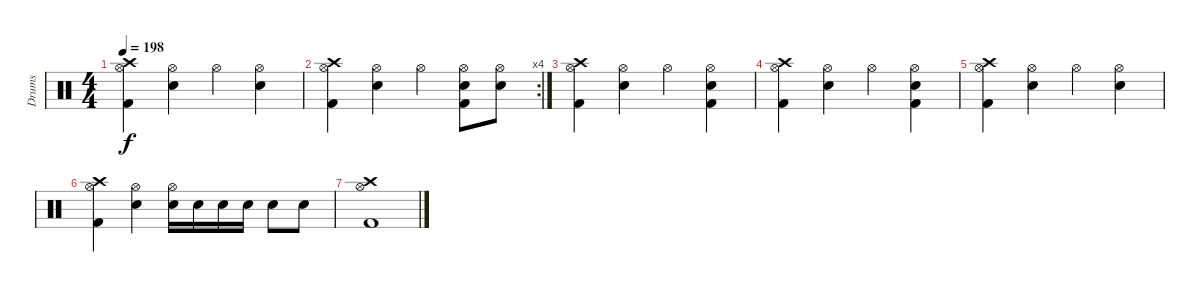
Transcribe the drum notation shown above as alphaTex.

\track ("Drums" "Drums") {instrument percussion}
\staff {score}
\articulation defaults
\ts (4 4)
\tempo 198
\clef neutral
\ks c
("Hi-Hat (open)" "Kick (hit) 2" "Crash high (hit)").4{dy f} ("Hi-Hat (open)" "Snare (hit) 2").4 "Hi-Hat (open)".4 ("Hi-Hat (open)" "Snare (hit) 2").4 |
\rc 4
("Hi-Hat (open)" "Kick (hit) 2" "Crash high (hit)").4 ("Hi-Hat (open)" "Snare (hit) 2").4 "Hi-Hat (open)".4 ("Hi-Hat (open)" "Snare (hit) 2" "Kick (hit) 2").8 ("Snare (hit) 2" "Hi-Hat (open)").8 |
("Hi-Hat (open)" "Kick (hit) 2" "Crash high (hit)").4 ("Hi-Hat (open)" "Snare (hit) 2").4 "Hi-Hat (open)".4 ("Hi-Hat (open)" "Snare (hit) 2" "Kick (hit) 2").4 |
("Hi-Hat (open)" "Kick (hit) 2" "Crash high (hit)").4 ("Hi-Hat (open)" "Snare (hit) 2").4 "Hi-Hat (open)".4 ("Hi-Hat (open)" "Snare (hit) 2" "Kick (hit) 2").4 |
("Hi-Hat (open)" "Kick (hit) 2" "Crash high (hit)").4 ("Hi-Hat (open)" "Snare (hit) 2").4 "Hi-Hat (open)".4 ("Hi-Hat (open)" "Snare (hit) 2").4 |
("Hi-Hat (open)" "Kick (hit) 2" "Crash high (hit)").4 ("Hi-Hat (open)" "Snare (hit) 2").4 ("Hi-Hat (open)" "Snare (hit) 2").16 "Snare (hit) 2".16 "Snare (hit) 2".16 "Snare (hit) 2".16 "Snare (hit) 2".8 "Snare (hit) 2".8 |
("Kick (hit) 2" "Hi-Hat (open)" "Crash high (hit)").1
